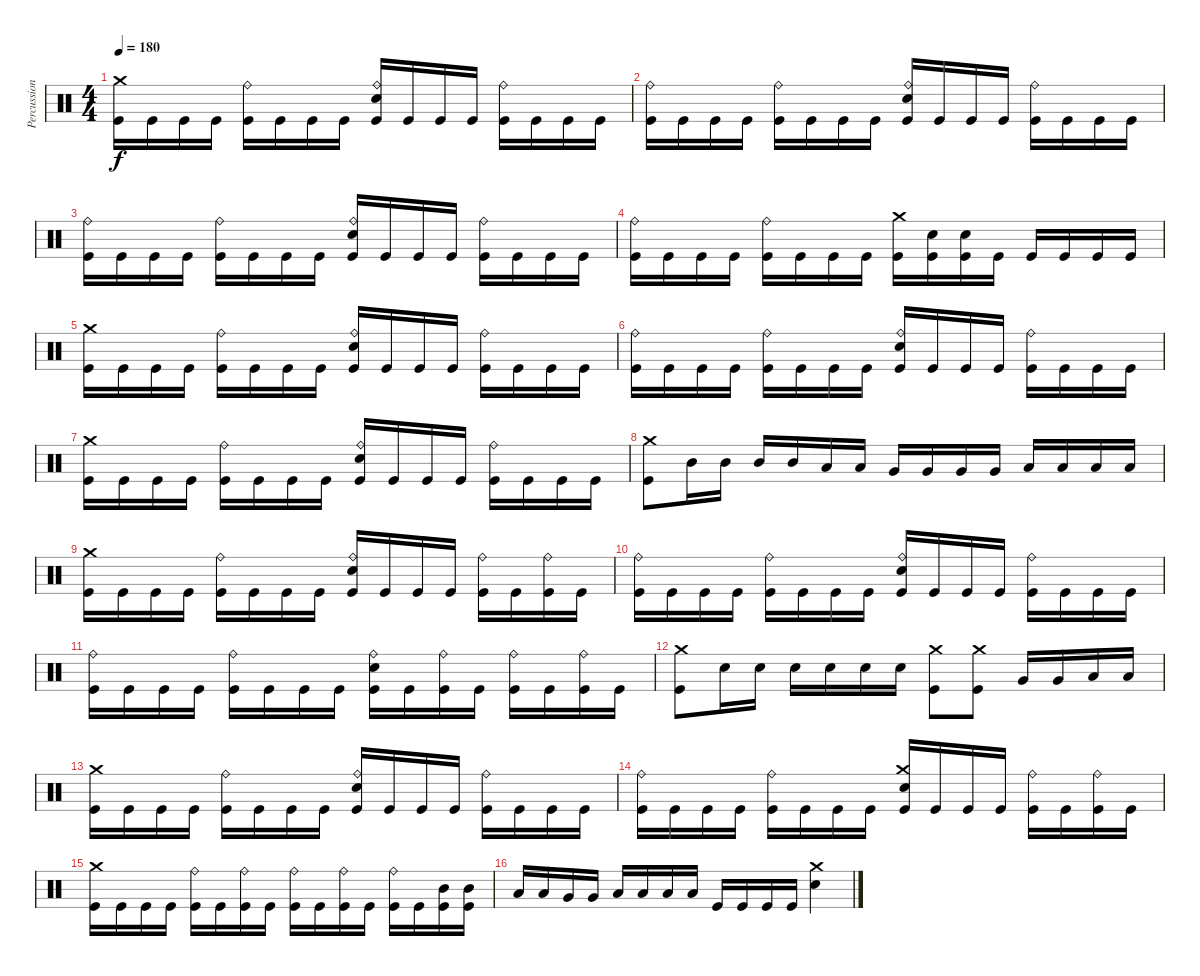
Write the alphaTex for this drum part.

\track ("Percussions" "Percussion") {instrument percussion}
\staff {score}
\articulation defaults
\ts (4 4)
\tempo 180
\clef neutral
\ks c
("Kick (hit)" "Crash medium (hit)").16{dy f} "Kick (hit)".16 "Kick (hit)".16 "Kick (hit)".16 ("Kick (hit)" "Ride (bell)").16 "Kick (hit)".16 "Kick (hit)".16 "Kick (hit)".16 ("Kick (hit)" "Electric Snare (hit)" "Ride (bell)").16 "Kick (hit)".16 "Kick (hit)".16 "Kick (hit)".16 ("Kick (hit)" "Ride (bell)").16 "Kick (hit)".16 "Kick (hit)".16 "Kick (hit)".16 |
("Kick (hit)" "Ride (bell)").16 "Kick (hit)".16 "Kick (hit)".16 "Kick (hit)".16 ("Kick (hit)" "Ride (bell)").16 "Kick (hit)".16 "Kick (hit)".16 "Kick (hit)".16 ("Kick (hit)" "Electric Snare (hit)" "Ride (bell)").16 "Kick (hit)".16 "Kick (hit)".16 "Kick (hit)".16 ("Kick (hit)" "Ride (bell)").16 "Kick (hit)".16 "Kick (hit)".16 "Kick (hit)".16 |
("Kick (hit)" "Ride (bell)").16 "Kick (hit)".16 "Kick (hit)".16 "Kick (hit)".16 ("Kick (hit)" "Ride (bell)").16 "Kick (hit)".16 "Kick (hit)".16 "Kick (hit)".16 ("Kick (hit)" "Electric Snare (hit)" "Ride (bell)").16 "Kick (hit)".16 "Kick (hit)".16 "Kick (hit)".16 ("Kick (hit)" "Ride (bell)").16 "Kick (hit)".16 "Kick (hit)".16 "Kick (hit)".16 |
("Kick (hit)" "Ride (bell)").16 "Kick (hit)".16 "Kick (hit)".16 "Kick (hit)".16 ("Kick (hit)" "Ride (bell)").16 "Kick (hit)".16 "Kick (hit)".16 "Kick (hit)".16 ("Kick (hit)" "Crash medium (hit)").16 ("Kick (hit)" "Electric Snare (hit)").16 ("Kick (hit)" "Electric Snare (hit)").16 "Kick (hit)".16 "Kick (hit)".16 "Kick (hit)".16 "Kick (hit)".16 "Kick (hit)".16 |
("Kick (hit)" "Crash medium (hit)").16 "Kick (hit)".16 "Kick (hit)".16 "Kick (hit)".16 ("Kick (hit)" "Ride (bell)").16 "Kick (hit)".16 "Kick (hit)".16 "Kick (hit)".16 ("Kick (hit)" "Electric Snare (hit)" "Ride (bell)").16 "Kick (hit)".16 "Kick (hit)".16 "Kick (hit)".16 ("Kick (hit)" "Ride (bell)").16 "Kick (hit)".16 "Kick (hit)".16 "Kick (hit)".16 |
("Kick (hit)" "Ride (bell)").16 "Kick (hit)".16 "Kick (hit)".16 "Kick (hit)".16 ("Kick (hit)" "Ride (bell)").16 "Kick (hit)".16 "Kick (hit)".16 "Kick (hit)".16 ("Kick (hit)" "Electric Snare (hit)" "Ride (bell)").16 "Kick (hit)".16 "Kick (hit)".16 "Kick (hit)".16 ("Kick (hit)" "Ride (bell)").16 "Kick (hit)".16 "Kick (hit)".16 "Kick (hit)".16 |
("Kick (hit)" "Crash medium (hit)").16 "Kick (hit)".16 "Kick (hit)".16 "Kick (hit)".16 ("Kick (hit)" "Ride (bell)").16 "Kick (hit)".16 "Kick (hit)".16 "Kick (hit)".16 ("Kick (hit)" "Electric Snare (hit)" "Ride (bell)").16 "Kick (hit)".16 "Kick (hit)".16 "Kick (hit)".16 ("Kick (hit)" "Ride (bell)").16 "Kick (hit)".16 "Kick (hit)".16 "Kick (hit)".16 |
("Kick (hit)" "Crash medium (hit)").8 "Mid Tom (hit)".16 "Mid Tom (hit)".16 "Mid Tom (hit)".16 "Mid Tom (hit)".16 "Low Tom (hit)".16 "Low Tom (hit)".16 "Very Low Tom (hit)".16 "Very Low Tom (hit)".16 "Very Low Tom (hit)".16 "Very Low Tom (hit)".16 "Low Floor Tom (hit)".16 "Low Floor Tom (hit)".16 "Low Floor Tom (hit)".16 "Low Floor Tom (hit)".16 |
("Kick (hit)" "Crash medium (hit)").16 "Kick (hit)".16 "Kick (hit)".16 "Kick (hit)".16 ("Kick (hit)" "Ride (bell)").16 "Kick (hit)".16 "Kick (hit)".16 "Kick (hit)".16 ("Kick (hit)" "Electric Snare (hit)" "Ride (bell)").16 "Kick (hit)".16 "Kick (hit)".16 "Kick (hit)".16 ("Kick (hit)" "Ride (bell)").16 "Kick (hit)".16 ("Kick (hit)" "Ride (bell)").16 "Kick (hit)".16 |
("Kick (hit)" "Ride (bell)").16 "Kick (hit)".16 "Kick (hit)".16 "Kick (hit)".16 ("Kick (hit)" "Ride (bell)").16 "Kick (hit)".16 "Kick (hit)".16 "Kick (hit)".16 ("Kick (hit)" "Electric Snare (hit)" "Ride (bell)").16 "Kick (hit)".16 "Kick (hit)".16 "Kick (hit)".16 ("Kick (hit)" "Ride (bell)").16 "Kick (hit)".16 "Kick (hit)".16 "Kick (hit)".16 |
("Kick (hit)" "Ride (bell)").16 "Kick (hit)".16 "Kick (hit)".16 "Kick (hit)".16 ("Kick (hit)" "Ride (bell)").16 "Kick (hit)".16 "Kick (hit)".16 "Kick (hit)".16 ("Kick (hit)" "Electric Snare (hit)" "Ride (bell)").16 "Kick (hit)".16 ("Kick (hit)" "Ride (bell)").16 "Kick (hit)".16 ("Kick (hit)" "Ride (bell)").16 "Kick (hit)".16 ("Kick (hit)" "Ride (bell)").16 "Kick (hit)".16 |
("Kick (hit)" "Crash medium (hit)").8 "Electric Snare (hit)".16 "Electric Snare (hit)".16 "Electric Snare (hit)".16 "Electric Snare (hit)".16 "Electric Snare (hit)".16 "Electric Snare (hit)".16 ("Kick (hit)" "Crash medium (hit)").8 ("Kick (hit)" "Crash medium (hit)").8 "Very Low Tom (hit)".16 "Very Low Tom (hit)".16 "Low Floor Tom (hit)".16 "Low Floor Tom (hit)".16 |
("Kick (hit)" "Crash medium (hit)").16 "Kick (hit)".16 "Kick (hit)".16 "Kick (hit)".16 ("Kick (hit)" "Ride (bell)").16 "Kick (hit)".16 "Kick (hit)".16 "Kick (hit)".16 ("Kick (hit)" "Electric Snare (hit)" "Ride (bell)").16 "Kick (hit)".16 "Kick (hit)".16 "Kick (hit)".16 ("Kick (hit)" "Ride (bell)").16 "Kick (hit)".16 "Kick (hit)".16 "Kick (hit)".16 |
("Kick (hit)" "Ride (bell)").16 "Kick (hit)".16 "Kick (hit)".16 "Kick (hit)".16 ("Kick (hit)" "Ride (bell)").16 "Kick (hit)".16 "Kick (hit)".16 "Kick (hit)".16 ("Kick (hit)" "Electric Snare (hit)" "Crash medium (hit)").16 "Kick (hit)".16 "Kick (hit)".16 "Kick (hit)".16 ("Kick (hit)" "Ride (bell)").16 "Kick (hit)".16 ("Kick (hit)" "Ride (bell)").16 "Kick (hit)".16 |
("Kick (hit)" "Crash medium (hit)").16 "Kick (hit)".16 "Kick (hit)".16 "Kick (hit)".16 ("Kick (hit)" "Ride (bell)").16 "Kick (hit)".16 ("Kick (hit)" "Ride (bell)").16 "Kick (hit)".16 ("Kick (hit)" "Ride (bell)").16 "Kick (hit)".16 ("Kick (hit)" "Ride (bell)").16 "Kick (hit)".16 ("Kick (hit)" "Ride (bell)").16 "Kick (hit)".16 ("Kick (hit)" "Mid Tom (hit)").16 ("Kick (hit)" "Mid Tom (hit)").16 |
"Low Tom (hit)".16 "Low Tom (hit)".16 "Very Low Tom (hit)".16 "Very Low Tom (hit)".16 "Low Floor Tom (hit)".16 "Low Floor Tom (hit)".16 "Low Floor Tom (hit)".16 "Low Floor Tom (hit)".16 "Kick (hit)".16 "Kick (hit)".16 "Kick (hit)".16 "Kick (hit)".16 ("Electric Snare (hit)" "Crash medium (hit)").4
